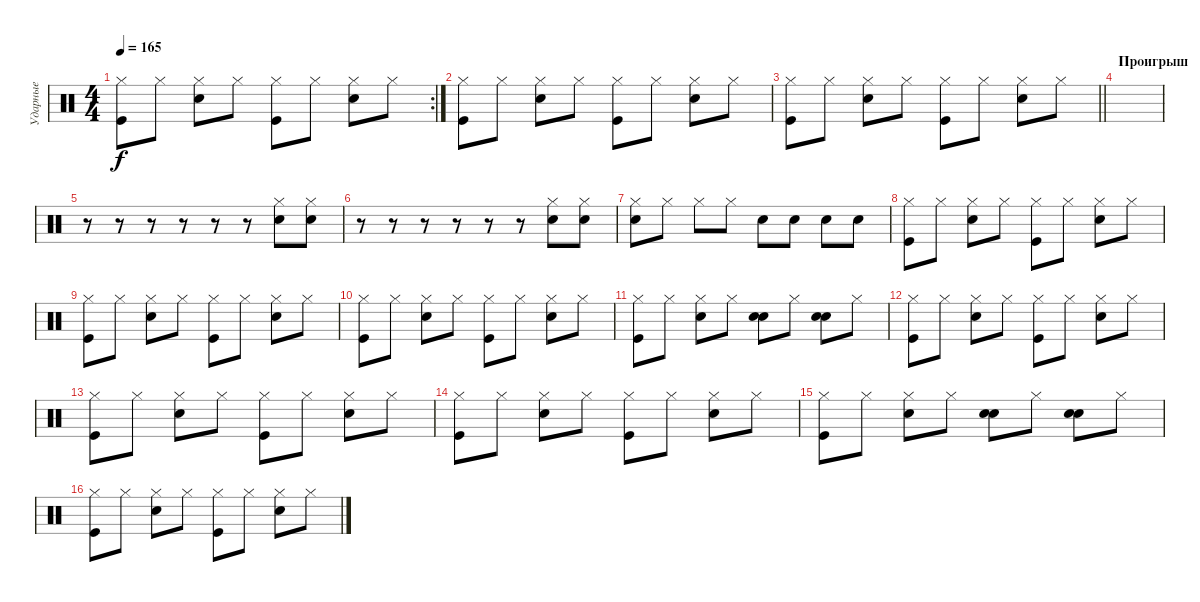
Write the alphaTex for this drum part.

\track ("Ударные" "Ударные") {instrument percussion}
\staff {score}
\articulation defaults
\rc 2
\ts (4 4)
\tempo 165
\clef neutral
\ks c
("Kick (hit)" "Hi-Hat (closed)").8{dy f} "Hi-Hat (closed)".8 ("Snare (hit) 2" "Hi-Hat (closed)").8 "Hi-Hat (closed)".8 ("Kick (hit)" "Hi-Hat (closed)").8 "Hi-Hat (closed)".8 ("Snare (hit) 2" "Hi-Hat (closed)").8 "Hi-Hat (closed)".8 |
("Kick (hit)" "Hi-Hat (closed)").8 "Hi-Hat (closed)".8 ("Snare (hit) 2" "Hi-Hat (closed)").8 "Hi-Hat (closed)".8 ("Kick (hit)" "Hi-Hat (closed)").8 "Hi-Hat (closed)".8 ("Snare (hit) 2" "Hi-Hat (closed)").8 "Hi-Hat (closed)".8 |
\barLineRight lightlight
("Kick (hit)" "Hi-Hat (closed)").8 "Hi-Hat (closed)".8 ("Snare (hit) 2" "Hi-Hat (closed)").8 "Hi-Hat (closed)".8 ("Kick (hit)" "Hi-Hat (closed)").8 "Hi-Hat (closed)".8 ("Snare (hit) 2" "Hi-Hat (closed)").8 "Hi-Hat (closed)".8 |
\section ("" "Проигрыш")
|
r.8 r.8 r.8 r.8 r.8 r.8 ("Snare (hit) 2" "Hi-Hat (closed)").8 ("Snare (hit) 2" "Hi-Hat (closed)").8 |
r.8 r.8 r.8 r.8 r.8 r.8 ("Snare (hit) 2" "Hi-Hat (closed)").8 ("Snare (hit) 2" "Hi-Hat (closed)").8 |
("Snare (hit) 2" "Hi-Hat (closed)").8 "Hi-Hat (closed)".8 "Hi-Hat (closed)".8 "Hi-Hat (closed)".8 "Electric Snare (hit)".8 "Electric Snare (hit)".8 "Electric Snare (hit)".8 "Electric Snare (hit)".8 |
("Kick (hit)" "Hi-Hat (closed)").8 "Hi-Hat (closed)".8 ("Snare (hit) 2" "Hi-Hat (closed)").8 "Hi-Hat (closed)".8 ("Kick (hit)" "Hi-Hat (closed)").8 "Hi-Hat (closed)".8 ("Snare (hit) 2" "Hi-Hat (closed)").8 "Hi-Hat (closed)".8 |
("Kick (hit)" "Hi-Hat (closed)").8 "Hi-Hat (closed)".8 ("Snare (hit) 2" "Hi-Hat (closed)").8 "Hi-Hat (closed)".8 ("Kick (hit)" "Hi-Hat (closed)").8 "Hi-Hat (closed)".8 ("Snare (hit) 2" "Hi-Hat (closed)").8 "Hi-Hat (closed)".8 |
("Kick (hit)" "Hi-Hat (closed)").8 "Hi-Hat (closed)".8 ("Snare (hit) 2" "Hi-Hat (closed)").8 "Hi-Hat (closed)".8 ("Kick (hit)" "Hi-Hat (closed)").8 "Hi-Hat (closed)".8 ("Snare (hit) 2" "Hi-Hat (closed)").8 "Hi-Hat (closed)".8 |
("Kick (hit)" "Hi-Hat (closed)").8 "Hi-Hat (closed)".8 ("Snare (hit) 2" "Hi-Hat (closed)").8 "Hi-Hat (closed)".8 ("Snare (hit) 2" "Electric Snare (hit)").8 "Hi-Hat (closed)".8 ("Snare (hit) 2" "Electric Snare (hit)").8 "Hi-Hat (closed)".8 |
("Kick (hit)" "Hi-Hat (closed)").8 "Hi-Hat (closed)".8 ("Snare (hit) 2" "Hi-Hat (closed)").8 "Hi-Hat (closed)".8 ("Kick (hit)" "Hi-Hat (closed)").8 "Hi-Hat (closed)".8 ("Snare (hit) 2" "Hi-Hat (closed)").8 "Hi-Hat (closed)".8 |
("Kick (hit)" "Hi-Hat (closed)").8 "Hi-Hat (closed)".8 ("Snare (hit) 2" "Hi-Hat (closed)").8 "Hi-Hat (closed)".8 ("Kick (hit)" "Hi-Hat (closed)").8 "Hi-Hat (closed)".8 ("Snare (hit) 2" "Hi-Hat (closed)").8 "Hi-Hat (closed)".8 |
("Kick (hit)" "Hi-Hat (closed)").8 "Hi-Hat (closed)".8 ("Snare (hit) 2" "Hi-Hat (closed)").8 "Hi-Hat (closed)".8 ("Kick (hit)" "Hi-Hat (closed)").8 "Hi-Hat (closed)".8 ("Snare (hit) 2" "Hi-Hat (closed)").8 "Hi-Hat (closed)".8 |
("Kick (hit)" "Hi-Hat (closed)").8 "Hi-Hat (closed)".8 ("Snare (hit) 2" "Hi-Hat (closed)").8 "Hi-Hat (closed)".8 ("Snare (hit) 2" "Electric Snare (hit)").8 "Hi-Hat (closed)".8 ("Snare (hit) 2" "Electric Snare (hit)").8 "Hi-Hat (closed)".8 |
("Kick (hit)" "Hi-Hat (closed)").8 "Hi-Hat (closed)".8 ("Snare (hit) 2" "Hi-Hat (closed)").8 "Hi-Hat (closed)".8 ("Kick (hit)" "Hi-Hat (closed)").8 "Hi-Hat (closed)".8 ("Snare (hit) 2" "Hi-Hat (closed)").8 "Hi-Hat (closed)".8
